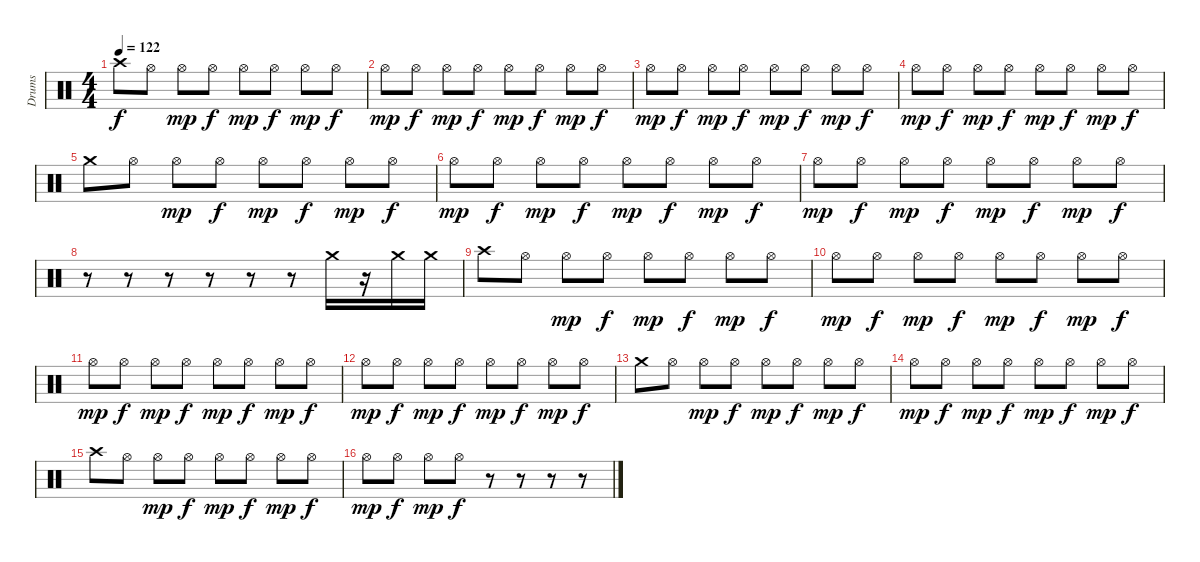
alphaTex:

\track ("Drums" "Drums") {instrument percussion}
\staff {score}
\articulation defaults
\ts (4 4)
\tempo 122
\clef neutral
\ks c "Crash high (hit)".8{dy f} "Hi-Hat (open)".8 "Hi-Hat (open)".8{dy mp} "Hi-Hat (open)".8{dy f} "Hi-Hat (open)".8{dy mp} "Hi-Hat (open)".8{dy f} "Hi-Hat (open)".8{dy mp} "Hi-Hat (open)".8{dy f}
|
"Hi-Hat (open)".8{dy mp} "Hi-Hat (open)".8{dy f} "Hi-Hat (open)".8{dy mp} "Hi-Hat (open)".8{dy f} "Hi-Hat (open)".8{dy mp} "Hi-Hat (open)".8{dy f} "Hi-Hat (open)".8{dy mp} "Hi-Hat (open)".8{dy f} |
"Hi-Hat (open)".8{dy mp} "Hi-Hat (open)".8{dy f} "Hi-Hat (open)".8{dy mp} "Hi-Hat (open)".8{dy f} "Hi-Hat (open)".8{dy mp} "Hi-Hat (open)".8{dy f} "Hi-Hat (open)".8{dy mp} "Hi-Hat (open)".8{dy f} |
"Hi-Hat (open)".8{dy mp} "Hi-Hat (open)".8{dy f} "Hi-Hat (open)".8{dy mp} "Hi-Hat (open)".8{dy f} "Hi-Hat (open)".8{dy mp} "Hi-Hat (open)".8{dy f} "Hi-Hat (open)".8{dy mp} "Hi-Hat (open)".8{dy f} |
"Crash medium (hit)".8 "Hi-Hat (open)".8 "Hi-Hat (open)".8{dy mp} "Hi-Hat (open)".8{dy f} "Hi-Hat (open)".8{dy mp} "Hi-Hat (open)".8{dy f} "Hi-Hat (open)".8{dy mp} "Hi-Hat (open)".8{dy f} |
"Hi-Hat (open)".8{dy mp} "Hi-Hat (open)".8{dy f} "Hi-Hat (open)".8{dy mp} "Hi-Hat (open)".8{dy f} "Hi-Hat (open)".8{dy mp} "Hi-Hat (open)".8{dy f} "Hi-Hat (open)".8{dy mp} "Hi-Hat (open)".8{dy f} |
"Hi-Hat (open)".8{dy mp} "Hi-Hat (open)".8{dy f} "Hi-Hat (open)".8{dy mp} "Hi-Hat (open)".8{dy f} "Hi-Hat (open)".8{dy mp} "Hi-Hat (open)".8{dy f} "Hi-Hat (open)".8{dy mp} "Hi-Hat (open)".8{dy f} |
r.8 r.8 r.8 r.8 r.8 r.8 "Crash medium (hit)".16 r.16 "Crash medium (hit)".16 "Crash medium (hit)".16 |
"Crash high (hit)".8 "Hi-Hat (open)".8 "Hi-Hat (open)".8{dy mp} "Hi-Hat (open)".8{dy f} "Hi-Hat (open)".8{dy mp} "Hi-Hat (open)".8{dy f} "Hi-Hat (open)".8{dy mp} "Hi-Hat (open)".8{dy f} |
"Hi-Hat (open)".8{dy mp} "Hi-Hat (open)".8{dy f} "Hi-Hat (open)".8{dy mp} "Hi-Hat (open)".8{dy f} "Hi-Hat (open)".8{dy mp} "Hi-Hat (open)".8{dy f} "Hi-Hat (open)".8{dy mp} "Hi-Hat (open)".8{dy f} |
"Hi-Hat (open)".8{dy mp} "Hi-Hat (open)".8{dy f} "Hi-Hat (open)".8{dy mp} "Hi-Hat (open)".8{dy f} "Hi-Hat (open)".8{dy mp} "Hi-Hat (open)".8{dy f} "Hi-Hat (open)".8{dy mp} "Hi-Hat (open)".8{dy f} |
"Hi-Hat (open)".8{dy mp} "Hi-Hat (open)".8{dy f} "Hi-Hat (open)".8{dy mp} "Hi-Hat (open)".8{dy f} "Hi-Hat (open)".8{dy mp} "Hi-Hat (open)".8{dy f} "Hi-Hat (open)".8{dy mp} "Hi-Hat (open)".8{dy f} |
"Crash medium (hit)".8 "Hi-Hat (open)".8 "Hi-Hat (open)".8{dy mp} "Hi-Hat (open)".8{dy f} "Hi-Hat (open)".8{dy mp} "Hi-Hat (open)".8{dy f} "Hi-Hat (open)".8{dy mp} "Hi-Hat (open)".8{dy f} |
"Hi-Hat (open)".8{dy mp} "Hi-Hat (open)".8{dy f} "Hi-Hat (open)".8{dy mp} "Hi-Hat (open)".8{dy f} "Hi-Hat (open)".8{dy mp} "Hi-Hat (open)".8{dy f} "Hi-Hat (open)".8{dy mp} "Hi-Hat (open)".8{dy f} |
"Crash high (hit)".8 "Hi-Hat (open)".8 "Hi-Hat (open)".8{dy mp} "Hi-Hat (open)".8{dy f} "Hi-Hat (open)".8{dy mp} "Hi-Hat (open)".8{dy f} "Hi-Hat (open)".8{dy mp} "Hi-Hat (open)".8{dy f} |
"Hi-Hat (open)".8{dy mp} "Hi-Hat (open)".8{dy f} "Hi-Hat (open)".8{dy mp} "Hi-Hat (open)".8{dy f} r.8 r.8 r.8 r.8
